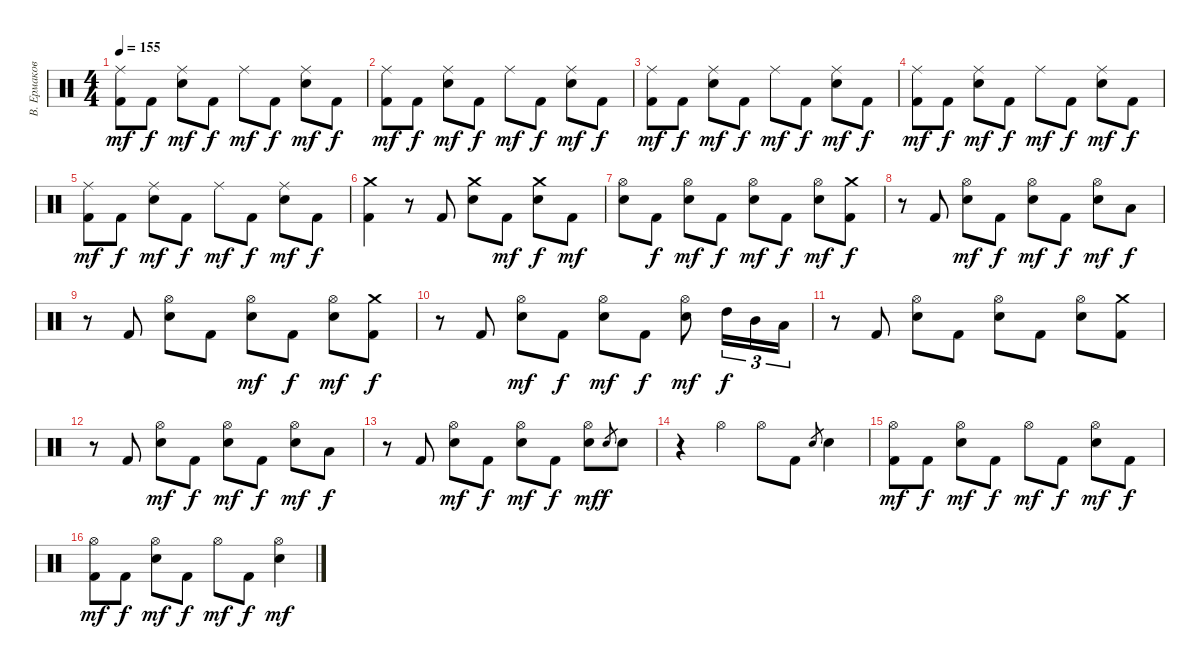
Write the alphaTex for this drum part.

\track ("В. Ермаков" "В. Ермаков") {instrument percussion}
\staff {score}
\articulation defaults
\ts (4 4)
\tempo 155
\clef neutral
\ks c
("Ride (middle)" "Kick (hit) 2").8{dy mf} "Kick (hit) 2".8{dy f} ("Ride (middle)" "Electric Snare (hit)").8{dy mf} "Kick (hit) 2".8{dy f} "Ride (middle)".8{dy mf} "Kick (hit) 2".8{dy f} ("Ride (middle)" "Electric Snare (hit)").8{dy mf} "Kick (hit) 2".8{dy f} |
("Ride (middle)" "Kick (hit) 2").8{dy mf} "Kick (hit) 2".8{dy f} ("Ride (middle)" "Electric Snare (hit)").8{dy mf} "Kick (hit) 2".8{dy f} "Ride (middle)".8{dy mf} "Kick (hit) 2".8{dy f} ("Ride (middle)" "Electric Snare (hit)").8{dy mf} "Kick (hit) 2".8{dy f} |
("Ride (middle)" "Kick (hit) 2").8{dy mf} "Kick (hit) 2".8{dy f} ("Ride (middle)" "Electric Snare (hit)").8{dy mf} "Kick (hit) 2".8{dy f} "Ride (middle)".8{dy mf} "Kick (hit) 2".8{dy f} ("Ride (middle)" "Electric Snare (hit)").8{dy mf} "Kick (hit) 2".8{dy f} |
("Ride (middle)" "Kick (hit) 2").8{dy mf} "Kick (hit) 2".8{dy f} ("Ride (middle)" "Electric Snare (hit)").8{dy mf} "Kick (hit) 2".8{dy f} "Ride (middle)".8{dy mf} "Kick (hit) 2".8{dy f} ("Ride (middle)" "Electric Snare (hit)").8{dy mf} "Kick (hit) 2".8{dy f} |
("Ride (middle)" "Kick (hit) 2").8{dy mf} "Kick (hit) 2".8{dy f} ("Ride (middle)" "Electric Snare (hit)").8{dy mf} "Kick (hit) 2".8{dy f} "Ride (middle)".8{dy mf} "Kick (hit) 2".8{dy f} ("Ride (middle)" "Electric Snare (hit)").8{dy mf} "Kick (hit) 2".8{dy f} |
("Crash medium (hit)" "Kick (hit) 2").4 r.8 "Kick (hit) 2".8 ("Electric Snare (hit)" "Crash medium (hit)").8 "Kick (hit) 2".8{dy mf} ("Electric Snare (hit)" "Crash medium (hit)").8{dy f} "Kick (hit) 2".8{dy mf} |
("Electric Snare (hit)" "Hi-Hat (open)").8 "Kick (hit) 2".8{dy f} ("Electric Snare (hit)" "Hi-Hat (open)").8{dy mf} "Kick (hit) 2".8{dy f} ("Electric Snare (hit)" "Hi-Hat (open)").8{dy mf} "Kick (hit) 2".8{dy f} ("Electric Snare (hit)" "Hi-Hat (open)").8{dy mf} ("Kick (hit) 2" "Crash medium (hit)").8{dy f} |
r.8 "Kick (hit) 2".8 ("Electric Snare (hit)" "Hi-Hat (open)").8{dy mf} "Kick (hit) 2".8{dy f} ("Electric Snare (hit)" "Hi-Hat (open)").8{dy mf} "Kick (hit) 2".8{dy f} ("Electric Snare (hit)" "Hi-Hat (open)").8{dy mf} "Low Tom (hit)".8{dy f} |
r.8 "Kick (hit) 2".8 ("Electric Snare (hit)" "Hi-Hat (open)").8 "Kick (hit) 2".8 ("Electric Snare (hit)" "Hi-Hat (open)").8{dy mf} "Kick (hit) 2".8{dy f} ("Electric Snare (hit)" "Hi-Hat (open)").8{dy mf} ("Kick (hit) 2" "Crash medium (hit)").8{dy f} |
r.8 "Kick (hit) 2".8 ("Electric Snare (hit)" "Hi-Hat (open)").8{dy mf} "Kick (hit) 2".8{dy f} ("Electric Snare (hit)" "Hi-Hat (open)").8{dy mf} "Kick (hit) 2".8{dy f} ("Electric Snare (hit)" "Hi-Hat (open)").8{dy mf} "High Tom (hit)".16{tu (3 2) dy f} "Mid Tom (hit)".16{tu (3 2)} "Low Tom (hit)".16{tu (3 2)} |
r.8 "Kick (hit) 2".8 ("Electric Snare (hit)" "Hi-Hat (open)").8 "Kick (hit) 2".8 ("Electric Snare (hit)" "Hi-Hat (open)").8 "Kick (hit) 2".8 ("Electric Snare (hit)" "Hi-Hat (open)").8 ("Kick (hit) 2" "Crash medium (hit)").8 |
r.8 "Kick (hit) 2".8 ("Electric Snare (hit)" "Hi-Hat (open)").8{dy mf} "Kick (hit) 2".8{dy f} ("Electric Snare (hit)" "Hi-Hat (open)").8{dy mf} "Kick (hit) 2".8{dy f} ("Electric Snare (hit)" "Hi-Hat (open)").8{dy mf} "Low Tom (hit)".8{dy f} |
r.8 "Kick (hit) 2".8 ("Electric Snare (hit)" "Hi-Hat (open)").8{dy mf} "Kick (hit) 2".8{dy f} ("Electric Snare (hit)" "Hi-Hat (open)").8{dy mf} "Kick (hit) 2".8{dy f} ("Electric Snare (hit)" "Hi-Hat (open)").8{dy mf} "Electric Snare (hit)".8{gr dy f} "Electric Snare (hit)".8 |
r.4 "Hi-Hat (open)".4 "Hi-Hat (open)".8 "Kick (hit) 2".8 "Electric Snare (hit)".8{gr} "Electric Snare (hit)".4 |
("Hi-Hat (open)" "Kick (hit) 2").8{dy mf} "Kick (hit) 2".8{dy f} ("Hi-Hat (open)" "Electric Snare (hit)").8{dy mf} "Kick (hit) 2".8{dy f} "Hi-Hat (open)".8{dy mf} "Kick (hit) 2".8{dy f} ("Hi-Hat (open)" "Electric Snare (hit)").8{dy mf} "Kick (hit) 2".8{dy f} |
("Hi-Hat (open)" "Kick (hit) 2").8{dy mf} "Kick (hit) 2".8{dy f} ("Hi-Hat (open)" "Electric Snare (hit)").8{dy mf} "Kick (hit) 2".8{dy f} "Hi-Hat (open)".8{dy mf} "Kick (hit) 2".8{dy f} ("Hi-Hat (open)" "Electric Snare (hit)").4{dy mf}
